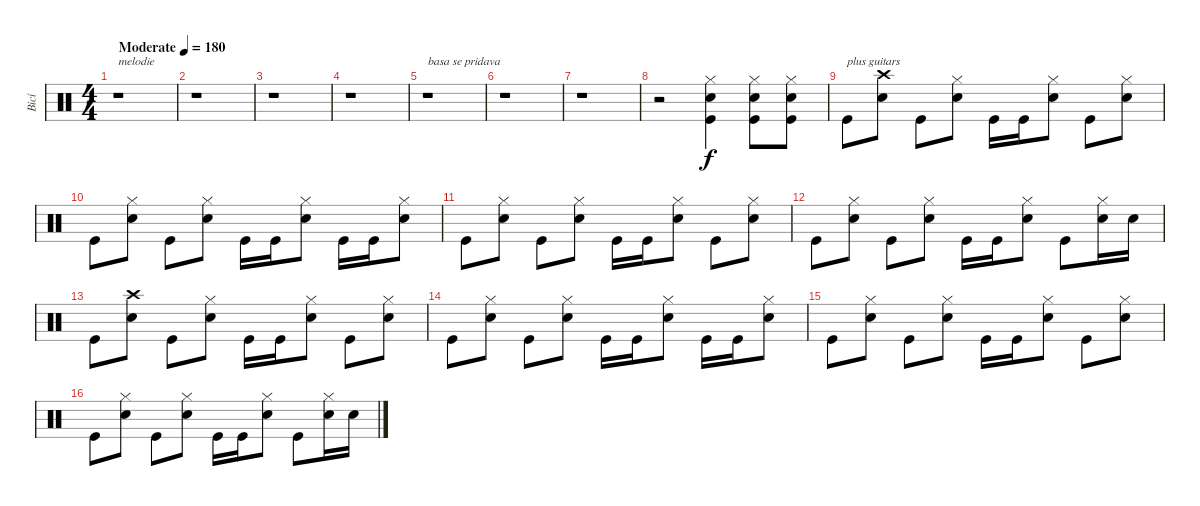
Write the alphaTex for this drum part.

\track ("Bicí" "Bicí") {instrument percussion}
\staff {score}
\articulation defaults
\ts (4 4)
\tempo (180 "Moderate")
\clef neutral
\ks c
r.1{txt "melodie" dy f} |
r.1 |
r.1 |
r.1 |
r.1{txt "basa se pridava"} |
r.1 |
r.1 |
r.2 ("Kick (hit)" "Snare (hit) 2" "Hi-Hat (closed)").4 ("Kick (hit)" "Snare (hit) 2" "Hi-Hat (closed)").8 ("Kick (hit)" "Snare (hit) 2" "Hi-Hat (closed)").8 |
"Kick (hit)".8{txt "plus guitars"} ("Snare (hit) 2" "Crash high (hit)").8 "Kick (hit)".8 ("Snare (hit) 2" "Hi-Hat (closed)").8 "Kick (hit)".16 "Kick (hit)".16 ("Snare (hit) 2" "Hi-Hat (closed)").8 "Kick (hit)".8 ("Snare (hit) 2" "Hi-Hat (closed)").8 |
"Kick (hit)".8 ("Snare (hit) 2" "Hi-Hat (closed)").8 "Kick (hit)".8 ("Snare (hit) 2" "Hi-Hat (closed)").8 "Kick (hit)".16 "Kick (hit)".16 ("Snare (hit) 2" "Hi-Hat (closed)").8 "Kick (hit)".16 "Kick (hit)".16 ("Snare (hit) 2" "Hi-Hat (closed)").8 |
"Kick (hit)".8 ("Snare (hit) 2" "Hi-Hat (closed)").8 "Kick (hit)".8 ("Snare (hit) 2" "Hi-Hat (closed)").8 "Kick (hit)".16 "Kick (hit)".16 ("Snare (hit) 2" "Hi-Hat (closed)").8 "Kick (hit)".8 ("Snare (hit) 2" "Hi-Hat (closed)").8 |
"Kick (hit)".8 ("Snare (hit) 2" "Hi-Hat (closed)").8 "Kick (hit)".8 ("Snare (hit) 2" "Hi-Hat (closed)").8 "Kick (hit)".16 "Kick (hit)".16 ("Snare (hit) 2" "Hi-Hat (closed)").8 "Kick (hit)".8 ("Snare (hit) 2" "Hi-Hat (closed)").16 "Snare (hit) 2".16 |
"Kick (hit)".8 ("Snare (hit) 2" "Crash high (hit)").8 "Kick (hit)".8 ("Snare (hit) 2" "Hi-Hat (closed)").8 "Kick (hit)".16 "Kick (hit)".16 ("Snare (hit) 2" "Hi-Hat (closed)").8 "Kick (hit)".8 ("Snare (hit) 2" "Hi-Hat (closed)").8 |
"Kick (hit)".8 ("Snare (hit) 2" "Hi-Hat (closed)").8 "Kick (hit)".8 ("Snare (hit) 2" "Hi-Hat (closed)").8 "Kick (hit)".16 "Kick (hit)".16 ("Snare (hit) 2" "Hi-Hat (closed)").8 "Kick (hit)".16 "Kick (hit)".16 ("Snare (hit) 2" "Hi-Hat (closed)").8 |
"Kick (hit)".8 ("Snare (hit) 2" "Hi-Hat (closed)").8 "Kick (hit)".8 ("Snare (hit) 2" "Hi-Hat (closed)").8 "Kick (hit)".16 "Kick (hit)".16 ("Snare (hit) 2" "Hi-Hat (closed)").8 "Kick (hit)".8 ("Snare (hit) 2" "Hi-Hat (closed)").8 |
"Kick (hit)".8 ("Snare (hit) 2" "Hi-Hat (closed)").8 "Kick (hit)".8 ("Snare (hit) 2" "Hi-Hat (closed)").8 "Kick (hit)".16 "Kick (hit)".16 ("Snare (hit) 2" "Hi-Hat (closed)").8 "Kick (hit)".8 ("Snare (hit) 2" "Hi-Hat (closed)").16 "Snare (hit) 2".16
